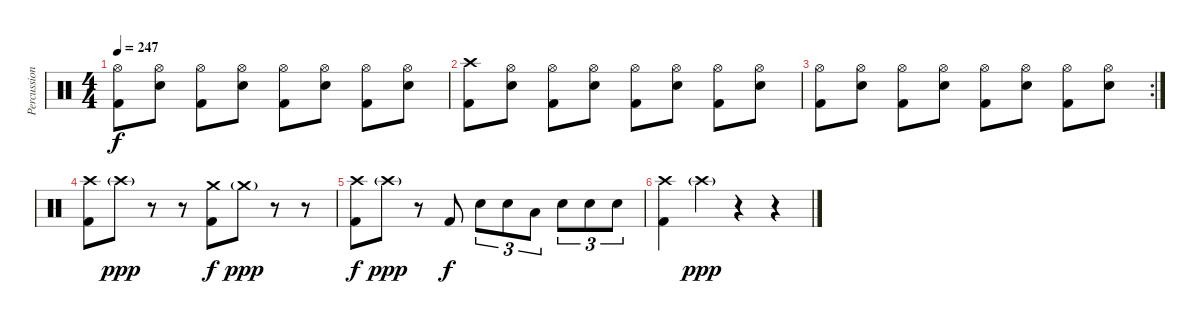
\track ("Percussion" "Percussion") {instrument percussion}
\staff {score}
\articulation defaults
\ts (4 4)
\tempo 247
\clef neutral
\ks c
("Hi-Hat (open)" "Kick (hit) 2").8{dy f} ("Hi-Hat (open)" "Snare (hit) 2").8 ("Hi-Hat (open)" "Kick (hit) 2").8 ("Hi-Hat (open)" "Snare (hit) 2").8 ("Hi-Hat (open)" "Kick (hit) 2").8 ("Hi-Hat (open)" "Snare (hit) 2").8 ("Hi-Hat (open)" "Kick (hit) 2").8 ("Hi-Hat (open)" "Snare (hit) 2").8 |
("Crash high (hit)" "Kick (hit) 2").8 ("Hi-Hat (open)" "Snare (hit) 2").8 ("Hi-Hat (open)" "Kick (hit) 2").8 ("Hi-Hat (open)" "Snare (hit) 2").8 ("Hi-Hat (open)" "Kick (hit) 2").8 ("Hi-Hat (open)" "Snare (hit) 2").8 ("Hi-Hat (open)" "Kick (hit) 2").8 ("Hi-Hat (open)" "Snare (hit) 2").8 |
\rc 2
("Hi-Hat (open)" "Kick (hit) 2").8 ("Hi-Hat (open)" "Snare (hit) 2").8 ("Hi-Hat (open)" "Kick (hit) 2").8 ("Hi-Hat (open)" "Snare (hit) 2").8 ("Hi-Hat (open)" "Kick (hit) 2").8 ("Hi-Hat (open)" "Snare (hit) 2").8 ("Hi-Hat (open)" "Kick (hit) 2").8 ("Hi-Hat (open)" "Snare (hit) 2").8 |
("Crash high (hit)" "Kick (hit) 2").8 "Crash high (hit)"{g}.8{dy ppp} r.8 r.8 ("Crash medium (hit)" "Kick (hit) 2").8{dy f} "Crash medium (hit)"{g}.8{dy ppp} r.8 r.8 |
("Crash high (hit)" "Kick (hit) 2").8{dy f} "Crash high (hit)"{g}.8{dy ppp} r.8 "Kick (hit) 2".8{dy f} "Snare (hit) 2".8{tu (3 2)} "Snare (hit) 2".8{tu (3 2)} "Low Tom (hit)".8{tu (3 2)} "Snare (hit) 2".8{tu (3 2)} "Snare (hit) 2".8{tu (3 2)} "Snare (hit) 2".8{tu (3 2)} |
("Crash high (hit)" "Kick (hit) 2").4 "Crash high (hit)"{g}.4{dy ppp} r.4 r.4
